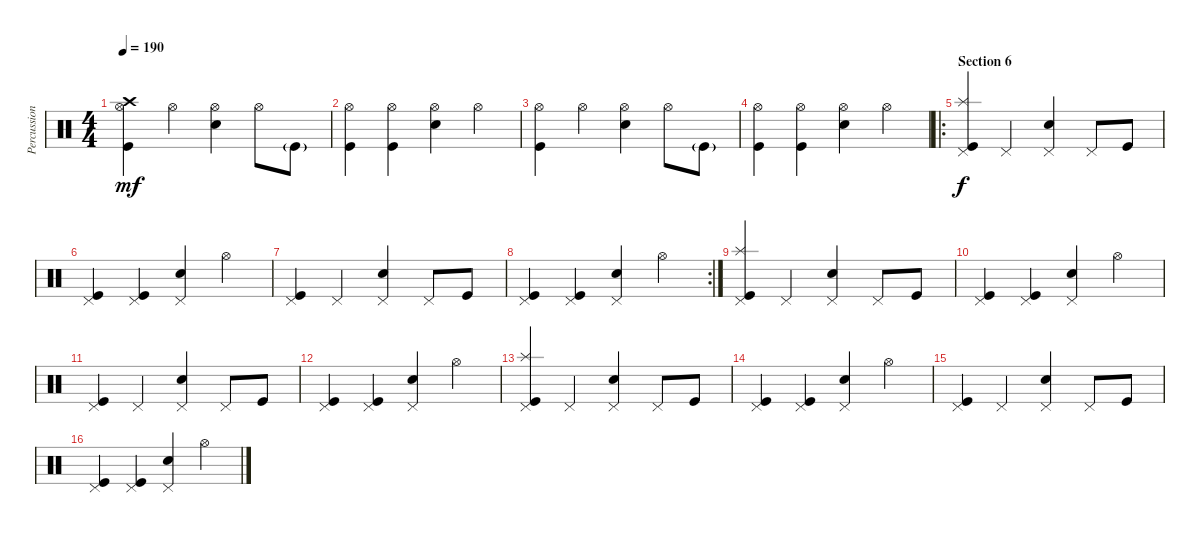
\track ("Percussion" "Percussion") {instrument percussion}
\staff {score}
\articulation defaults
\ts (4 4)
\tempo 190
\clef neutral
\ks c
("Crash high (hit)" "Kick (hit)" "Hi-Hat (open)").4{dy mf} "Hi-Hat (open)".4 ("Electric Snare (hit)" "Hi-Hat (open)").4 "Hi-Hat (open)".8 "Kick (hit)"{g}.8 |
("Kick (hit)" "Hi-Hat (open)").4 ("Kick (hit)" "Hi-Hat (open)").4 ("Electric Snare (hit)" "Hi-Hat (open)").4 "Hi-Hat (open)".4 |
("Kick (hit)" "Hi-Hat (open)").4 "Hi-Hat (open)".4 ("Electric Snare (hit)" "Hi-Hat (open)").4 "Hi-Hat (open)".8 "Kick (hit)"{g}.8 |
("Kick (hit)" "Hi-Hat (open)").4 ("Kick (hit)" "Hi-Hat (open)").4 ("Electric Snare (hit)" "Hi-Hat (open)").4 "Hi-Hat (open)".4 |
\ro
\section ("" "Section 6")
("Splash (hit)" "Kick (hit)" "Pedal Hi-Hat (hit)").4{dy f} "Pedal Hi-Hat (hit)".4 ("Electric Snare (hit)" "Pedal Hi-Hat (hit)").4 "Pedal Hi-Hat (hit)".8 "Kick (hit)".8 |
("Kick (hit)" "Pedal Hi-Hat (hit)").4 ("Kick (hit)" "Pedal Hi-Hat (hit)").4 ("Electric Snare (hit)" "Pedal Hi-Hat (hit)").4 "Hi-Hat (open)".4 |
("Kick (hit)" "Pedal Hi-Hat (hit)").4 "Pedal Hi-Hat (hit)".4 ("Electric Snare (hit)" "Pedal Hi-Hat (hit)").4 "Pedal Hi-Hat (hit)".8 "Kick (hit)".8 |
\rc 2
("Kick (hit)" "Pedal Hi-Hat (hit)").4 ("Kick (hit)" "Pedal Hi-Hat (hit)").4 ("Electric Snare (hit)" "Pedal Hi-Hat (hit)").4 "Hi-Hat (open)".4 |
("Splash (hit)" "Kick (hit)" "Pedal Hi-Hat (hit)").4 "Pedal Hi-Hat (hit)".4 ("Electric Snare (hit)" "Pedal Hi-Hat (hit)").4 "Pedal Hi-Hat (hit)".8 "Kick (hit)".8 |
("Kick (hit)" "Pedal Hi-Hat (hit)").4 ("Kick (hit)" "Pedal Hi-Hat (hit)").4 ("Electric Snare (hit)" "Pedal Hi-Hat (hit)").4 "Hi-Hat (open)".4 |
("Kick (hit)" "Pedal Hi-Hat (hit)").4 "Pedal Hi-Hat (hit)".4 ("Electric Snare (hit)" "Pedal Hi-Hat (hit)").4 "Pedal Hi-Hat (hit)".8 "Kick (hit)".8 |
("Kick (hit)" "Pedal Hi-Hat (hit)").4 ("Kick (hit)" "Pedal Hi-Hat (hit)").4 ("Electric Snare (hit)" "Pedal Hi-Hat (hit)").4 "Hi-Hat (open)".4 |
("Splash (hit)" "Kick (hit)" "Pedal Hi-Hat (hit)").4 "Pedal Hi-Hat (hit)".4 ("Electric Snare (hit)" "Pedal Hi-Hat (hit)").4 "Pedal Hi-Hat (hit)".8 "Kick (hit)".8 |
("Kick (hit)" "Pedal Hi-Hat (hit)").4 ("Kick (hit)" "Pedal Hi-Hat (hit)").4 ("Electric Snare (hit)" "Pedal Hi-Hat (hit)").4 "Hi-Hat (open)".4 |
("Kick (hit)" "Pedal Hi-Hat (hit)").4 "Pedal Hi-Hat (hit)".4 ("Electric Snare (hit)" "Pedal Hi-Hat (hit)").4 "Pedal Hi-Hat (hit)".8 "Kick (hit)".8 |
("Kick (hit)" "Pedal Hi-Hat (hit)").4 ("Kick (hit)" "Pedal Hi-Hat (hit)").4 ("Electric Snare (hit)" "Pedal Hi-Hat (hit)").4 "Hi-Hat (open)".4
